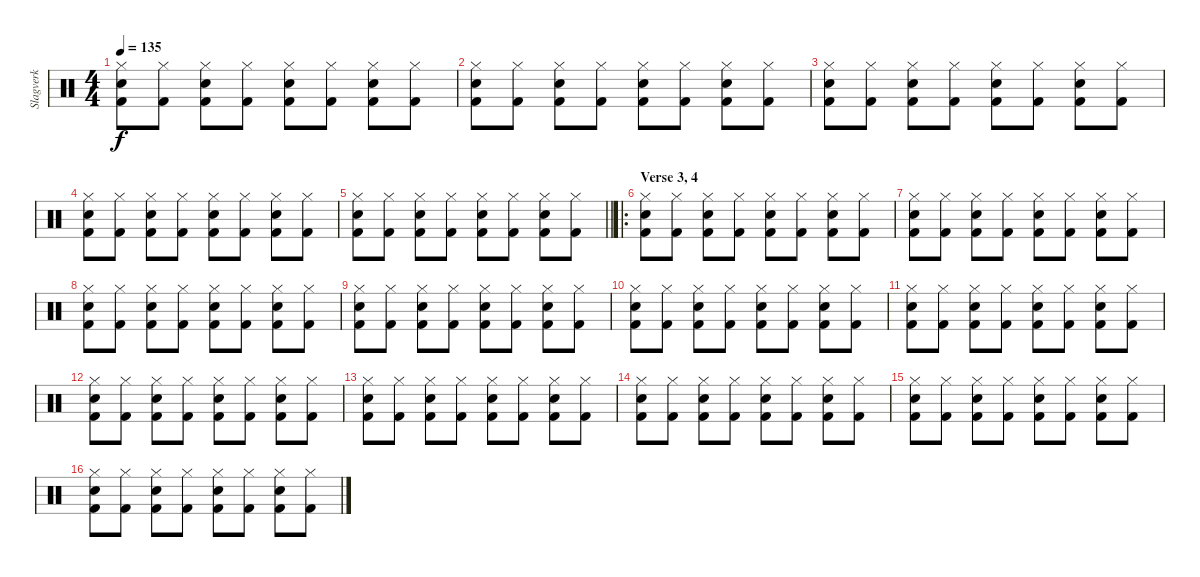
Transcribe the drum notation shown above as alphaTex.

\track ("Slagverk" "Slagverk") {instrument percussion}
\staff {score}
\articulation defaults
\ts (4 4)
\tempo 135
\clef neutral
\ks c
("Hi-Hat (closed)" "Snare (hit) 2" "Kick (hit) 2").8{dy f} ("Hi-Hat (closed)" "Kick (hit) 2").8 ("Hi-Hat (closed)" "Snare (hit) 2" "Kick (hit) 2").8 ("Hi-Hat (closed)" "Kick (hit) 2").8 ("Hi-Hat (closed)" "Snare (hit) 2" "Kick (hit) 2").8 ("Hi-Hat (closed)" "Kick (hit) 2").8 ("Hi-Hat (closed)" "Snare (hit) 2" "Kick (hit) 2").8 ("Hi-Hat (closed)" "Kick (hit) 2").8 |
("Hi-Hat (closed)" "Snare (hit) 2" "Kick (hit) 2").8 ("Hi-Hat (closed)" "Kick (hit) 2").8 ("Hi-Hat (closed)" "Snare (hit) 2" "Kick (hit) 2").8 ("Hi-Hat (closed)" "Kick (hit) 2").8 ("Hi-Hat (closed)" "Snare (hit) 2" "Kick (hit) 2").8 ("Hi-Hat (closed)" "Kick (hit) 2").8 ("Hi-Hat (closed)" "Snare (hit) 2" "Kick (hit) 2").8 ("Hi-Hat (closed)" "Kick (hit) 2").8 |
("Hi-Hat (closed)" "Snare (hit) 2" "Kick (hit) 2").8 ("Hi-Hat (closed)" "Kick (hit) 2").8 ("Hi-Hat (closed)" "Snare (hit) 2" "Kick (hit) 2").8 ("Hi-Hat (closed)" "Kick (hit) 2").8 ("Hi-Hat (closed)" "Snare (hit) 2" "Kick (hit) 2").8 ("Hi-Hat (closed)" "Kick (hit) 2").8 ("Hi-Hat (closed)" "Snare (hit) 2" "Kick (hit) 2").8 ("Hi-Hat (closed)" "Kick (hit) 2").8 |
("Hi-Hat (closed)" "Snare (hit) 2" "Kick (hit) 2").8 ("Hi-Hat (closed)" "Kick (hit) 2").8 ("Hi-Hat (closed)" "Snare (hit) 2" "Kick (hit) 2").8 ("Hi-Hat (closed)" "Kick (hit) 2").8 ("Hi-Hat (closed)" "Snare (hit) 2" "Kick (hit) 2").8 ("Hi-Hat (closed)" "Kick (hit) 2").8 ("Hi-Hat (closed)" "Snare (hit) 2" "Kick (hit) 2").8 ("Hi-Hat (closed)" "Kick (hit) 2").8 |
\barLineRight lightlight
("Hi-Hat (closed)" "Snare (hit) 2" "Kick (hit) 2").8 ("Hi-Hat (closed)" "Kick (hit) 2").8 ("Hi-Hat (closed)" "Snare (hit) 2" "Kick (hit) 2").8 ("Hi-Hat (closed)" "Kick (hit) 2").8 ("Hi-Hat (closed)" "Snare (hit) 2" "Kick (hit) 2").8 ("Hi-Hat (closed)" "Kick (hit) 2").8 ("Hi-Hat (closed)" "Snare (hit) 2" "Kick (hit) 2").8 ("Hi-Hat (closed)" "Kick (hit) 2").8 |
\ro
\section ("" "Verse 3, 4")
("Hi-Hat (closed)" "Snare (hit) 2" "Kick (hit) 2").8 ("Hi-Hat (closed)" "Kick (hit) 2").8 ("Hi-Hat (closed)" "Snare (hit) 2" "Kick (hit) 2").8 ("Hi-Hat (closed)" "Kick (hit) 2").8 ("Hi-Hat (closed)" "Snare (hit) 2" "Kick (hit) 2").8 ("Hi-Hat (closed)" "Kick (hit) 2").8 ("Hi-Hat (closed)" "Snare (hit) 2" "Kick (hit) 2").8 ("Hi-Hat (closed)" "Kick (hit) 2").8 |
("Hi-Hat (closed)" "Snare (hit) 2" "Kick (hit) 2").8 ("Hi-Hat (closed)" "Kick (hit) 2").8 ("Hi-Hat (closed)" "Snare (hit) 2" "Kick (hit) 2").8 ("Hi-Hat (closed)" "Kick (hit) 2").8 ("Hi-Hat (closed)" "Snare (hit) 2" "Kick (hit) 2").8 ("Hi-Hat (closed)" "Kick (hit) 2").8 ("Hi-Hat (closed)" "Snare (hit) 2" "Kick (hit) 2").8 ("Hi-Hat (closed)" "Kick (hit) 2").8 |
("Hi-Hat (closed)" "Snare (hit) 2" "Kick (hit) 2").8 ("Hi-Hat (closed)" "Kick (hit) 2").8 ("Hi-Hat (closed)" "Snare (hit) 2" "Kick (hit) 2").8 ("Hi-Hat (closed)" "Kick (hit) 2").8 ("Hi-Hat (closed)" "Snare (hit) 2" "Kick (hit) 2").8 ("Hi-Hat (closed)" "Kick (hit) 2").8 ("Hi-Hat (closed)" "Snare (hit) 2" "Kick (hit) 2").8 ("Hi-Hat (closed)" "Kick (hit) 2").8 |
("Hi-Hat (closed)" "Snare (hit) 2" "Kick (hit) 2").8 ("Hi-Hat (closed)" "Kick (hit) 2").8 ("Hi-Hat (closed)" "Snare (hit) 2" "Kick (hit) 2").8 ("Hi-Hat (closed)" "Kick (hit) 2").8 ("Hi-Hat (closed)" "Snare (hit) 2" "Kick (hit) 2").8 ("Hi-Hat (closed)" "Kick (hit) 2").8 ("Hi-Hat (closed)" "Snare (hit) 2" "Kick (hit) 2").8 ("Hi-Hat (closed)" "Kick (hit) 2").8 |
("Hi-Hat (closed)" "Snare (hit) 2" "Kick (hit) 2").8 ("Hi-Hat (closed)" "Kick (hit) 2").8 ("Hi-Hat (closed)" "Snare (hit) 2" "Kick (hit) 2").8 ("Hi-Hat (closed)" "Kick (hit) 2").8 ("Hi-Hat (closed)" "Snare (hit) 2" "Kick (hit) 2").8 ("Hi-Hat (closed)" "Kick (hit) 2").8 ("Hi-Hat (closed)" "Snare (hit) 2" "Kick (hit) 2").8 ("Hi-Hat (closed)" "Kick (hit) 2").8 |
("Hi-Hat (closed)" "Snare (hit) 2" "Kick (hit) 2").8 ("Hi-Hat (closed)" "Kick (hit) 2").8 ("Hi-Hat (closed)" "Snare (hit) 2" "Kick (hit) 2").8 ("Hi-Hat (closed)" "Kick (hit) 2").8 ("Hi-Hat (closed)" "Snare (hit) 2" "Kick (hit) 2").8 ("Hi-Hat (closed)" "Kick (hit) 2").8 ("Hi-Hat (closed)" "Snare (hit) 2" "Kick (hit) 2").8 ("Hi-Hat (closed)" "Kick (hit) 2").8 |
("Hi-Hat (closed)" "Snare (hit) 2" "Kick (hit) 2").8 ("Hi-Hat (closed)" "Kick (hit) 2").8 ("Hi-Hat (closed)" "Snare (hit) 2" "Kick (hit) 2").8 ("Hi-Hat (closed)" "Kick (hit) 2").8 ("Hi-Hat (closed)" "Snare (hit) 2" "Kick (hit) 2").8 ("Hi-Hat (closed)" "Kick (hit) 2").8 ("Hi-Hat (closed)" "Snare (hit) 2" "Kick (hit) 2").8 ("Hi-Hat (closed)" "Kick (hit) 2").8 |
("Hi-Hat (closed)" "Snare (hit) 2" "Kick (hit) 2").8 ("Hi-Hat (closed)" "Kick (hit) 2").8 ("Hi-Hat (closed)" "Snare (hit) 2" "Kick (hit) 2").8 ("Hi-Hat (closed)" "Kick (hit) 2").8 ("Hi-Hat (closed)" "Snare (hit) 2" "Kick (hit) 2").8 ("Hi-Hat (closed)" "Kick (hit) 2").8 ("Hi-Hat (closed)" "Snare (hit) 2" "Kick (hit) 2").8 ("Hi-Hat (closed)" "Kick (hit) 2").8 |
("Hi-Hat (closed)" "Snare (hit) 2" "Kick (hit) 2").8 ("Hi-Hat (closed)" "Kick (hit) 2").8 ("Hi-Hat (closed)" "Snare (hit) 2" "Kick (hit) 2").8 ("Hi-Hat (closed)" "Kick (hit) 2").8 ("Hi-Hat (closed)" "Snare (hit) 2" "Kick (hit) 2").8 ("Hi-Hat (closed)" "Kick (hit) 2").8 ("Hi-Hat (closed)" "Snare (hit) 2" "Kick (hit) 2").8 ("Hi-Hat (closed)" "Kick (hit) 2").8 |
("Hi-Hat (closed)" "Snare (hit) 2" "Kick (hit) 2").8 ("Hi-Hat (closed)" "Kick (hit) 2").8 ("Hi-Hat (closed)" "Snare (hit) 2" "Kick (hit) 2").8 ("Hi-Hat (closed)" "Kick (hit) 2").8 ("Hi-Hat (closed)" "Snare (hit) 2" "Kick (hit) 2").8 ("Hi-Hat (closed)" "Kick (hit) 2").8 ("Hi-Hat (closed)" "Snare (hit) 2" "Kick (hit) 2").8 ("Hi-Hat (closed)" "Kick (hit) 2").8 |
("Hi-Hat (closed)" "Snare (hit) 2" "Kick (hit) 2").8 ("Hi-Hat (closed)" "Kick (hit) 2").8 ("Hi-Hat (closed)" "Snare (hit) 2" "Kick (hit) 2").8 ("Hi-Hat (closed)" "Kick (hit) 2").8 ("Hi-Hat (closed)" "Snare (hit) 2" "Kick (hit) 2").8 ("Hi-Hat (closed)" "Kick (hit) 2").8 ("Hi-Hat (closed)" "Snare (hit) 2" "Kick (hit) 2").8 ("Hi-Hat (closed)" "Kick (hit) 2").8
